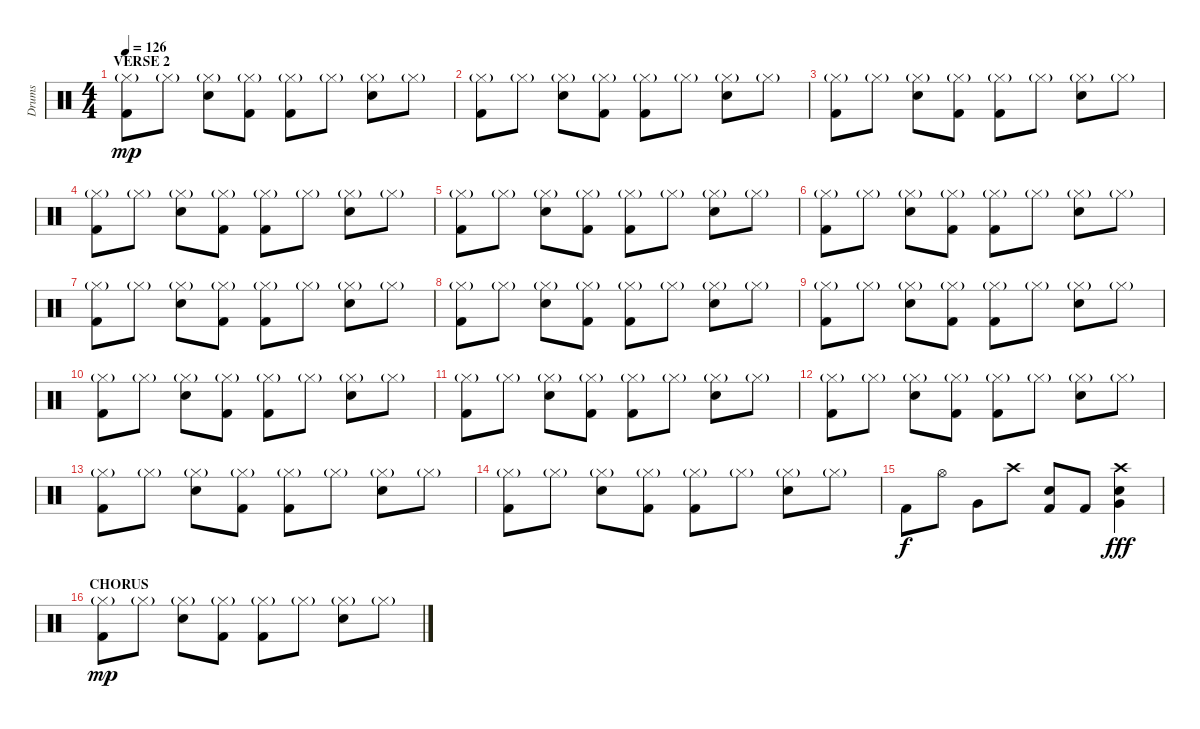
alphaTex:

\track ("Drums" "Drums") {instrument percussion}
\staff {score}
\articulation defaults
\ts (4 4)
\section ("" "VERSE 2")
\tempo 126
\clef neutral
\ks c
("Hi-Hat (closed)"{g} "Kick (hit) 2").8{dy mp} "Hi-Hat (closed)"{g}.8 ("Hi-Hat (closed)"{g} "Snare (hit) 2").8 ("Hi-Hat (closed)"{g} "Kick (hit) 2").8 ("Hi-Hat (closed)"{g} "Kick (hit) 2").8 "Hi-Hat (closed)"{g}.8 ("Hi-Hat (closed)"{g} "Snare (hit) 2").8 "Hi-Hat (closed)"{g}.8 |
("Hi-Hat (closed)"{g} "Kick (hit) 2").8 "Hi-Hat (closed)"{g}.8 ("Hi-Hat (closed)"{g} "Snare (hit) 2").8 ("Hi-Hat (closed)"{g} "Kick (hit) 2").8 ("Hi-Hat (closed)"{g} "Kick (hit) 2").8 "Hi-Hat (closed)"{g}.8 ("Hi-Hat (closed)"{g} "Snare (hit) 2").8 "Hi-Hat (closed)"{g}.8 |
("Hi-Hat (closed)"{g} "Kick (hit) 2").8 "Hi-Hat (closed)"{g}.8 ("Hi-Hat (closed)"{g} "Snare (hit) 2").8 ("Hi-Hat (closed)"{g} "Kick (hit) 2").8 ("Hi-Hat (closed)"{g} "Kick (hit) 2").8 "Hi-Hat (closed)"{g}.8 ("Hi-Hat (closed)"{g} "Snare (hit) 2").8 "Hi-Hat (closed)"{g}.8 |
("Hi-Hat (closed)"{g} "Kick (hit) 2").8 "Hi-Hat (closed)"{g}.8 ("Hi-Hat (closed)"{g} "Snare (hit) 2").8 ("Hi-Hat (closed)"{g} "Kick (hit) 2").8 ("Hi-Hat (closed)"{g} "Kick (hit) 2").8 "Hi-Hat (closed)"{g}.8 ("Hi-Hat (closed)"{g} "Snare (hit) 2").8 "Hi-Hat (closed)"{g}.8 |
("Hi-Hat (closed)"{g} "Kick (hit) 2").8 "Hi-Hat (closed)"{g}.8 ("Hi-Hat (closed)"{g} "Snare (hit) 2").8 ("Hi-Hat (closed)"{g} "Kick (hit) 2").8 ("Hi-Hat (closed)"{g} "Kick (hit) 2").8 "Hi-Hat (closed)"{g}.8 ("Hi-Hat (closed)"{g} "Snare (hit) 2").8 "Hi-Hat (closed)"{g}.8 |
("Hi-Hat (closed)"{g} "Kick (hit) 2").8 "Hi-Hat (closed)"{g}.8 ("Hi-Hat (closed)"{g} "Snare (hit) 2").8 ("Hi-Hat (closed)"{g} "Kick (hit) 2").8 ("Hi-Hat (closed)"{g} "Kick (hit) 2").8 "Hi-Hat (closed)"{g}.8 ("Hi-Hat (closed)"{g} "Snare (hit) 2").8 "Hi-Hat (closed)"{g}.8 |
("Hi-Hat (closed)"{g} "Kick (hit) 2").8 "Hi-Hat (closed)"{g}.8 ("Hi-Hat (closed)"{g} "Snare (hit) 2").8 ("Hi-Hat (closed)"{g} "Kick (hit) 2").8 ("Hi-Hat (closed)"{g} "Kick (hit) 2").8 "Hi-Hat (closed)"{g}.8 ("Hi-Hat (closed)"{g} "Snare (hit) 2").8 "Hi-Hat (closed)"{g}.8 |
("Hi-Hat (closed)"{g} "Kick (hit) 2").8 "Hi-Hat (closed)"{g}.8 ("Hi-Hat (closed)"{g} "Snare (hit) 2").8 ("Hi-Hat (closed)"{g} "Kick (hit) 2").8 ("Hi-Hat (closed)"{g} "Kick (hit) 2").8 "Hi-Hat (closed)"{g}.8 ("Hi-Hat (closed)"{g} "Snare (hit) 2").8 "Hi-Hat (closed)"{g}.8 |
("Hi-Hat (closed)"{g} "Kick (hit) 2").8 "Hi-Hat (closed)"{g}.8 ("Hi-Hat (closed)"{g} "Snare (hit) 2").8 ("Hi-Hat (closed)"{g} "Kick (hit) 2").8 ("Hi-Hat (closed)"{g} "Kick (hit) 2").8 "Hi-Hat (closed)"{g}.8 ("Hi-Hat (closed)"{g} "Snare (hit) 2").8 "Hi-Hat (closed)"{g}.8 |
("Hi-Hat (closed)"{g} "Kick (hit) 2").8 "Hi-Hat (closed)"{g}.8 ("Hi-Hat (closed)"{g} "Snare (hit) 2").8 ("Hi-Hat (closed)"{g} "Kick (hit) 2").8 ("Hi-Hat (closed)"{g} "Kick (hit) 2").8 "Hi-Hat (closed)"{g}.8 ("Hi-Hat (closed)"{g} "Snare (hit) 2").8 "Hi-Hat (closed)"{g}.8 |
("Hi-Hat (closed)"{g} "Kick (hit) 2").8 "Hi-Hat (closed)"{g}.8 ("Hi-Hat (closed)"{g} "Snare (hit) 2").8 ("Hi-Hat (closed)"{g} "Kick (hit) 2").8 ("Hi-Hat (closed)"{g} "Kick (hit) 2").8 "Hi-Hat (closed)"{g}.8 ("Hi-Hat (closed)"{g} "Snare (hit) 2").8 "Hi-Hat (closed)"{g}.8 |
("Hi-Hat (closed)"{g} "Kick (hit) 2").8 "Hi-Hat (closed)"{g}.8 ("Hi-Hat (closed)"{g} "Snare (hit) 2").8 ("Hi-Hat (closed)"{g} "Kick (hit) 2").8 ("Hi-Hat (closed)"{g} "Kick (hit) 2").8 "Hi-Hat (closed)"{g}.8 ("Hi-Hat (closed)"{g} "Snare (hit) 2").8 "Hi-Hat (closed)"{g}.8 |
("Hi-Hat (closed)"{g} "Kick (hit) 2").8 "Hi-Hat (closed)"{g}.8 ("Hi-Hat (closed)"{g} "Snare (hit) 2").8 ("Hi-Hat (closed)"{g} "Kick (hit) 2").8 ("Hi-Hat (closed)"{g} "Kick (hit) 2").8 "Hi-Hat (closed)"{g}.8 ("Hi-Hat (closed)"{g} "Snare (hit) 2").8 "Hi-Hat (closed)"{g}.8 |
("Hi-Hat (closed)"{g} "Kick (hit) 2").8 "Hi-Hat (closed)"{g}.8 ("Hi-Hat (closed)"{g} "Snare (hit) 2").8 ("Hi-Hat (closed)"{g} "Kick (hit) 2").8 ("Hi-Hat (closed)"{g} "Kick (hit) 2").8 "Hi-Hat (closed)"{g}.8 ("Hi-Hat (closed)"{g} "Snare (hit) 2").8 "Hi-Hat (closed)"{g}.8 |
"Kick (hit) 2".8{dy f} "Hi-Hat (open)".8 "Very Low Tom (hit)".8 "Crash high (hit)".8 ("Snare (hit) 2" "Kick (hit) 2").8 "Kick (hit) 2".8 ("Crash high (hit)" "Snare (hit) 2" "Very Low Tom (hit)").4{dy fff} |
\section ("" "CHORUS")
("Hi-Hat (closed)"{g} "Kick (hit) 2").8{dy mp} "Hi-Hat (closed)"{g}.8 ("Hi-Hat (closed)"{g} "Snare (hit) 2").8 ("Hi-Hat (closed)"{g} "Kick (hit) 2").8 ("Hi-Hat (closed)"{g} "Kick (hit) 2").8 "Hi-Hat (closed)"{g}.8 ("Hi-Hat (closed)"{g} "Snare (hit) 2").8 "Hi-Hat (closed)"{g}.8
